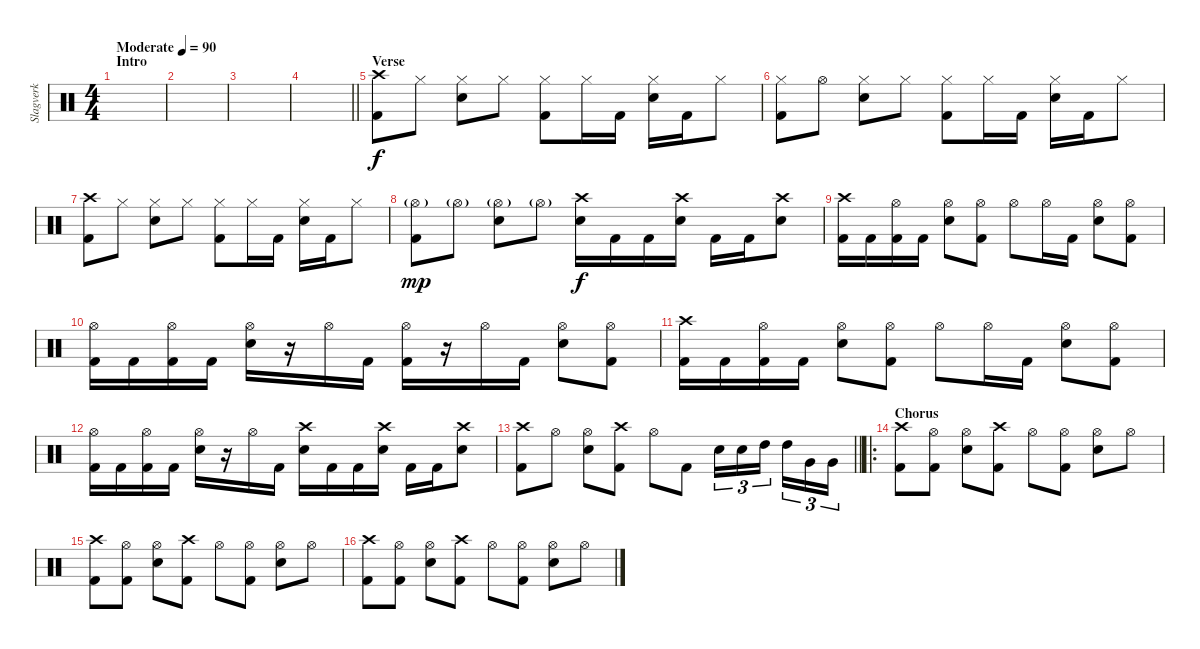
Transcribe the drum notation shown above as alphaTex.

\track ("Slagverk" "Slagverk") {instrument percussion}
\staff {score}
\articulation defaults
\ts (4 4)
\section ("" "Intro")
\tempo (90 "Moderate")
\clef neutral
\ks c
|
|
|
\barLineRight lightlight
|
\section ("" "Verse ")
("Kick (hit) 2" "Crash high (hit)").8 "Hi-Hat (closed)".8 ("Hi-Hat (closed)" "Snare (hit) 2").8 "Hi-Hat (closed)".8 ("Kick (hit) 2" "Hi-Hat (closed)").8 "Hi-Hat (closed)".16 "Kick (hit) 2".16 ("Hi-Hat (closed)" "Snare (hit) 2").16 "Kick (hit) 2".16 "Hi-Hat (closed)".8 |
("Kick (hit) 2" "Hi-Hat (closed)").8 "Hi-Hat (open)".8 ("Hi-Hat (closed)" "Snare (hit) 2").8 "Hi-Hat (closed)".8 ("Kick (hit) 2" "Hi-Hat (closed)").8 "Hi-Hat (closed)".16 "Kick (hit) 2".16 ("Hi-Hat (closed)" "Snare (hit) 2").16 "Kick (hit) 2".16 "Hi-Hat (closed)".8 |
("Kick (hit) 2" "Crash high (hit)").8 "Hi-Hat (closed)".8 ("Hi-Hat (closed)" "Snare (hit) 2").8 "Hi-Hat (closed)".8 ("Kick (hit) 2" "Hi-Hat (closed)").8 "Hi-Hat (closed)".16 "Kick (hit) 2".16 ("Hi-Hat (closed)" "Snare (hit) 2").16 "Kick (hit) 2".16 "Hi-Hat (closed)".8 |
("Kick (hit) 2" "Hi-Hat (open)"{g}).8{dy mp} "Hi-Hat (open)"{g}.8 ("Hi-Hat (open)"{g} "Snare (hit) 2").8 "Hi-Hat (open)"{g}.8 ("Crash high (hit)" "Snare (hit) 2").16{dy f} "Kick (hit) 2".16 "Kick (hit) 2".16 ("Crash high (hit)" "Snare (hit) 2").16 "Kick (hit) 2".16 "Kick (hit) 2".16 ("Crash high (hit)" "Snare (hit) 2").8 |
("Kick (hit) 2" "Crash high (hit)").16 "Kick (hit) 2".16 ("Kick (hit) 2" "Hi-Hat (open)").16 "Kick (hit) 2".16 ("Hi-Hat (open)" "Snare (hit) 2").8 ("Kick (hit) 2" "Hi-Hat (open)").8 "Hi-Hat (open)".8 "Hi-Hat (open)".16 "Kick (hit) 2".16 ("Hi-Hat (open)" "Snare (hit) 2").8 ("Kick (hit) 2" "Hi-Hat (open)").8 |
("Kick (hit) 2" "Hi-Hat (open)").16 "Kick (hit) 2".16 ("Kick (hit) 2" "Hi-Hat (open)").16 "Kick (hit) 2".16 ("Hi-Hat (open)" "Snare (hit) 2").16 r.16 "Hi-Hat (open)".16 "Kick (hit) 2".16 ("Kick (hit) 2" "Hi-Hat (open)").16 r.16 "Hi-Hat (open)".16 "Kick (hit) 2".16 ("Hi-Hat (open)" "Snare (hit) 2").8 ("Kick (hit) 2" "Hi-Hat (open)").8 |
("Kick (hit) 2" "Crash high (hit)").16 "Kick (hit) 2".16 ("Kick (hit) 2" "Hi-Hat (open)").16 "Kick (hit) 2".16 ("Hi-Hat (open)" "Snare (hit) 2").8 ("Kick (hit) 2" "Hi-Hat (open)").8 "Hi-Hat (open)".8 "Hi-Hat (open)".16 "Kick (hit) 2".16 ("Hi-Hat (open)" "Snare (hit) 2").8 ("Kick (hit) 2" "Hi-Hat (open)").8 |
("Kick (hit) 2" "Hi-Hat (open)").16 "Kick (hit) 2".16 ("Kick (hit) 2" "Hi-Hat (open)").16 "Kick (hit) 2".16 ("Hi-Hat (open)" "Snare (hit) 2").16 r.16 "Hi-Hat (open)".16 "Kick (hit) 2".16 ("Crash high (hit)" "Snare (hit) 2").16 "Kick (hit) 2".16 "Kick (hit) 2".16 ("Crash high (hit)" "Snare (hit) 2").16 "Kick (hit) 2".16 "Kick (hit) 2".16 ("Crash high (hit)" "Snare (hit) 2").8 |
\barLineRight lightlight
("Kick (hit) 2" "Crash high (hit)").8 "Hi-Hat (open)".8 ("Hi-Hat (open)" "Snare (hit) 2").8 ("Kick (hit) 2" "Crash high (hit)").8 "Hi-Hat (open)".8 "Kick (hit) 2".8 "Snare (hit) 2".16{tu (3 2)} "Snare (hit) 2".16{tu (3 2)} "High Tom (hit)".16{tu (3 2) beam splitsecondary} "High Tom (hit)".16{tu (3 2)} "Very Low Tom (hit)".16{tu (3 2)} "Very Low Tom (hit)".16{tu (3 2)} |
\ro
\section ("" "Chorus")
("Kick (hit) 2" "Crash high (hit)").8 ("Kick (hit) 2" "Hi-Hat (open)").8 ("Hi-Hat (open)" "Snare (hit) 2").8 ("Kick (hit) 2" "Crash high (hit)").8 "Hi-Hat (open)".8 ("Kick (hit) 2" "Hi-Hat (open)").8 ("Hi-Hat (open)" "Snare (hit) 2").8 "Hi-Hat (open)".8 |
("Kick (hit) 2" "Crash high (hit)").8 ("Kick (hit) 2" "Hi-Hat (open)").8 ("Hi-Hat (open)" "Snare (hit) 2").8 ("Kick (hit) 2" "Crash high (hit)").8 "Hi-Hat (open)".8 ("Kick (hit) 2" "Hi-Hat (open)").8 ("Hi-Hat (open)" "Snare (hit) 2").8 "Hi-Hat (open)".8 |
("Kick (hit) 2" "Crash high (hit)").8 ("Kick (hit) 2" "Hi-Hat (open)").8 ("Hi-Hat (open)" "Snare (hit) 2").8 ("Kick (hit) 2" "Crash high (hit)").8 "Hi-Hat (open)".8 ("Kick (hit) 2" "Hi-Hat (open)").8 ("Hi-Hat (open)" "Snare (hit) 2").8 "Hi-Hat (open)".8
